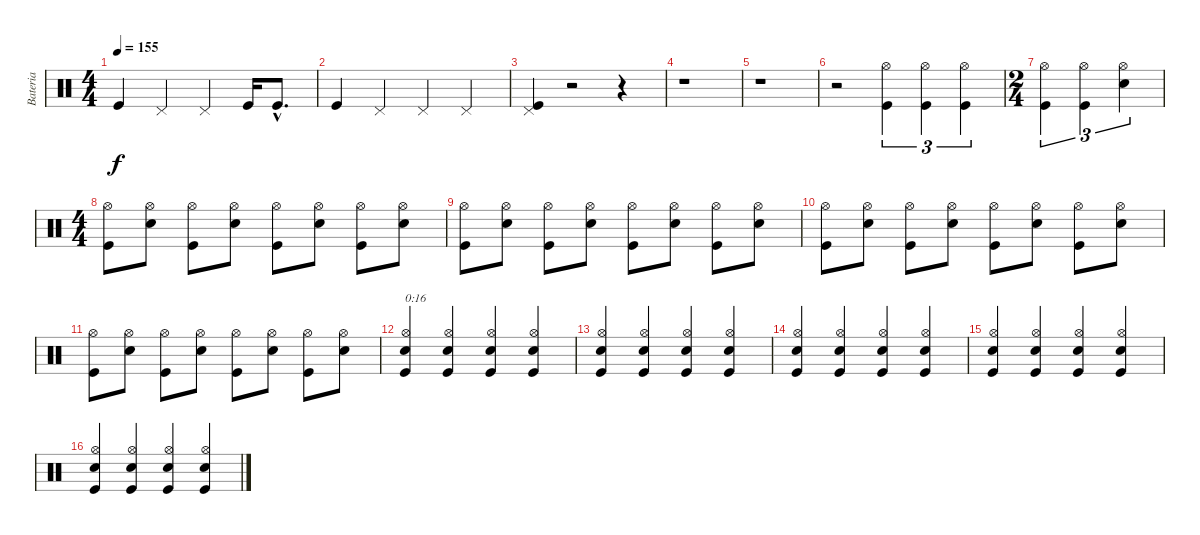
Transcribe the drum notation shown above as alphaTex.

\track ("Bateria" "Bateria") {instrument percussion}
\staff {score}
\articulation defaults
\ts (4 4)
\tempo 155
\clef neutral
\ks c "Kick (hit)".4{dy f} "Pedal Hi-Hat (hit)".4 "Pedal Hi-Hat (hit)".4 "Kick (hit)".16 "Kick (hit)"{hac}.8{d}
|
"Kick (hit)".4 "Pedal Hi-Hat (hit)".4 "Pedal Hi-Hat (hit)".4 "Pedal Hi-Hat (hit)".4 |
("Kick (hit)" "Pedal Hi-Hat (hit)").4 r.2 r.4 |
r.1 |
r.1 |
r.2 ("Kick (hit)" "Hi-Hat (open)").4{tu (3 2)} ("Kick (hit)" "Hi-Hat (open)").4{tu (3 2)} ("Kick (hit)" "Hi-Hat (open)").4{tu (3 2)} |
\ts (2 4)
("Kick (hit)" "Hi-Hat (open)").4{tu (3 2)} ("Kick (hit)" "Hi-Hat (open)").4{tu (3 2)} ("Snare (hit) 2" "Hi-Hat (open)").4{tu (3 2)} |
\ts (4 4)
("Kick (hit)" "Hi-Hat (open)").8 ("Snare (hit) 2" "Hi-Hat (open)").8 ("Kick (hit)" "Hi-Hat (open)").8 ("Snare (hit) 2" "Hi-Hat (open)").8 ("Kick (hit)" "Hi-Hat (open)").8 ("Snare (hit) 2" "Hi-Hat (open)").8 ("Kick (hit)" "Hi-Hat (open)").8 ("Snare (hit) 2" "Hi-Hat (open)").8 |
("Kick (hit)" "Hi-Hat (open)").8 ("Snare (hit) 2" "Hi-Hat (open)").8 ("Kick (hit)" "Hi-Hat (open)").8 ("Snare (hit) 2" "Hi-Hat (open)").8 ("Kick (hit)" "Hi-Hat (open)").8 ("Snare (hit) 2" "Hi-Hat (open)").8 ("Kick (hit)" "Hi-Hat (open)").8 ("Snare (hit) 2" "Hi-Hat (open)").8 |
("Kick (hit)" "Hi-Hat (open)").8 ("Snare (hit) 2" "Hi-Hat (open)").8 ("Kick (hit)" "Hi-Hat (open)").8 ("Snare (hit) 2" "Hi-Hat (open)").8 ("Kick (hit)" "Hi-Hat (open)").8 ("Snare (hit) 2" "Hi-Hat (open)").8 ("Kick (hit)" "Hi-Hat (open)").8 ("Snare (hit) 2" "Hi-Hat (open)").8 |
("Kick (hit)" "Hi-Hat (open)").8 ("Snare (hit) 2" "Hi-Hat (open)").8 ("Kick (hit)" "Hi-Hat (open)").8 ("Snare (hit) 2" "Hi-Hat (open)").8 ("Kick (hit)" "Hi-Hat (open)").8 ("Snare (hit) 2" "Hi-Hat (open)").8 ("Kick (hit)" "Hi-Hat (open)").8 ("Snare (hit) 2" "Hi-Hat (open)").8 |
("Kick (hit)" "Snare (hit) 2" "Hi-Hat (open)").4{txt "0:16"} ("Kick (hit)" "Snare (hit) 2" "Hi-Hat (open)").4 ("Kick (hit)" "Snare (hit) 2" "Hi-Hat (open)").4 ("Kick (hit)" "Snare (hit) 2" "Hi-Hat (open)").4 |
("Kick (hit)" "Snare (hit) 2" "Hi-Hat (open)").4 ("Kick (hit)" "Snare (hit) 2" "Hi-Hat (open)").4 ("Kick (hit)" "Snare (hit) 2" "Hi-Hat (open)").4 ("Kick (hit)" "Snare (hit) 2" "Hi-Hat (open)").4 |
("Kick (hit)" "Snare (hit) 2" "Hi-Hat (open)").4 ("Kick (hit)" "Snare (hit) 2" "Hi-Hat (open)").4 ("Kick (hit)" "Snare (hit) 2" "Hi-Hat (open)").4 ("Kick (hit)" "Snare (hit) 2" "Hi-Hat (open)").4 |
("Kick (hit)" "Snare (hit) 2" "Hi-Hat (open)").4 ("Kick (hit)" "Snare (hit) 2" "Hi-Hat (open)").4 ("Kick (hit)" "Snare (hit) 2" "Hi-Hat (open)").4 ("Kick (hit)" "Snare (hit) 2" "Hi-Hat (open)").4 |
("Kick (hit)" "Snare (hit) 2" "Hi-Hat (open)").4 ("Kick (hit)" "Snare (hit) 2" "Hi-Hat (open)").4 ("Kick (hit)" "Snare (hit) 2" "Hi-Hat (open)").4 ("Kick (hit)" "Snare (hit) 2" "Hi-Hat (open)").4
